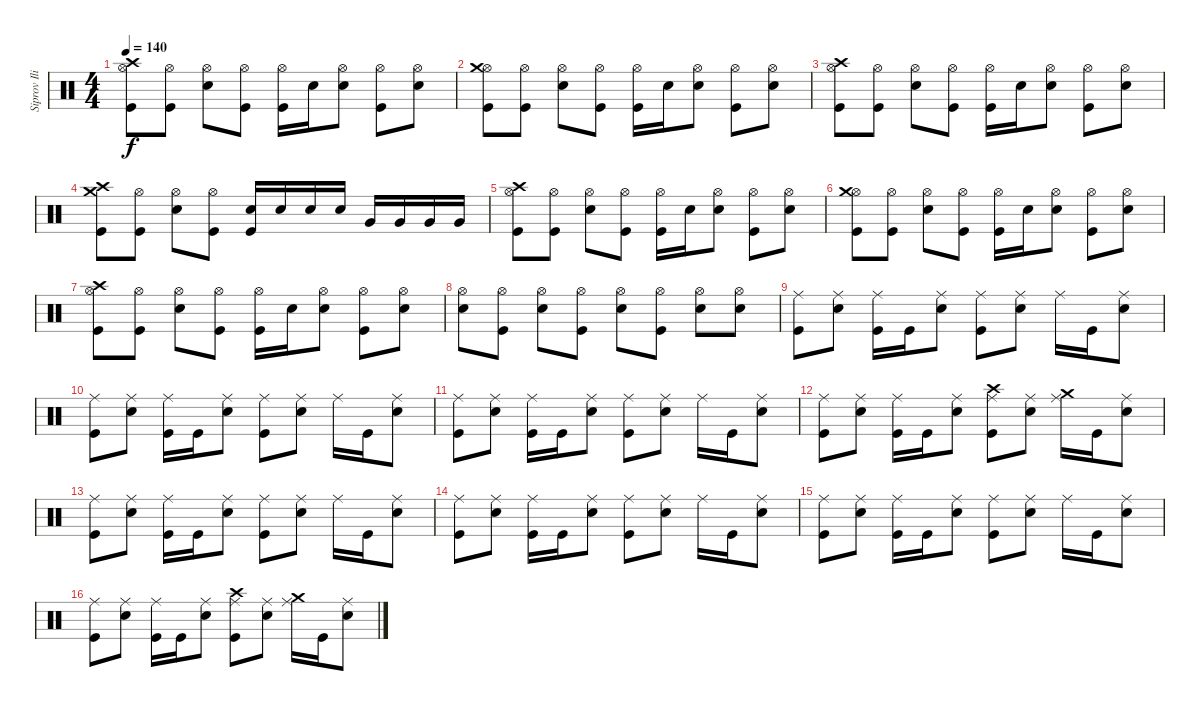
\track ("Siprov Iliya (DRUMS)" "Siprov Ili") {instrument percussion}
\staff {score}
\articulation defaults
\ts (4 4)
\tempo 140
\clef neutral
\ks c
("Hi-Hat (open)" "Crash high (hit)" "Kick (hit)").8{dy f} ("Hi-Hat (open)" "Kick (hit)").8 ("Hi-Hat (open)" "Electric Snare (hit)").8 ("Hi-Hat (open)" "Kick (hit)").8 ("Hi-Hat (open)" "Kick (hit)").16 "Electric Snare (hit)".16 ("Hi-Hat (open)" "Electric Snare (hit)").8 ("Hi-Hat (open)" "Kick (hit)").8 ("Hi-Hat (open)" "Electric Snare (hit)").8 |
("Hi-Hat (open)" "Crash medium (hit)" "Kick (hit)").8 ("Hi-Hat (open)" "Kick (hit)").8 ("Hi-Hat (open)" "Electric Snare (hit)").8 ("Hi-Hat (open)" "Kick (hit)").8 ("Hi-Hat (open)" "Kick (hit)").16 "Electric Snare (hit)".16 ("Hi-Hat (open)" "Electric Snare (hit)").8 ("Hi-Hat (open)" "Kick (hit)").8 ("Hi-Hat (open)" "Electric Snare (hit)").8 |
("Hi-Hat (open)" "Crash high (hit)" "Kick (hit)").8 ("Hi-Hat (open)" "Kick (hit)").8 ("Hi-Hat (open)" "Electric Snare (hit)").8 ("Hi-Hat (open)" "Kick (hit)").8 ("Hi-Hat (open)" "Kick (hit)").16 "Electric Snare (hit)".16 ("Hi-Hat (open)" "Electric Snare (hit)").8 ("Hi-Hat (open)" "Kick (hit)").8 ("Hi-Hat (open)" "Electric Snare (hit)").8 |
("Crash high (hit)" "Crash medium (hit)" "Kick (hit)").8 ("Hi-Hat (open)" "Kick (hit)").8 ("Hi-Hat (open)" "Electric Snare (hit)").8 ("Hi-Hat (open)" "Kick (hit)").8 ("Electric Snare (hit)" "Kick (hit)").16 "Electric Snare (hit)".16 "Electric Snare (hit)".16 "Electric Snare (hit)".16 "Very Low Tom (hit)".16 "Very Low Tom (hit)".16 "Very Low Tom (hit)".16 "Very Low Tom (hit)".16 |
("Hi-Hat (open)" "Crash high (hit)" "Kick (hit)").8 ("Hi-Hat (open)" "Kick (hit)").8 ("Hi-Hat (open)" "Electric Snare (hit)").8 ("Hi-Hat (open)" "Kick (hit)").8 ("Hi-Hat (open)" "Kick (hit)").16 "Electric Snare (hit)".16 ("Hi-Hat (open)" "Electric Snare (hit)").8 ("Hi-Hat (open)" "Kick (hit)").8 ("Hi-Hat (open)" "Electric Snare (hit)").8 |
("Hi-Hat (open)" "Crash medium (hit)" "Kick (hit)").8 ("Hi-Hat (open)" "Kick (hit)").8 ("Hi-Hat (open)" "Electric Snare (hit)").8 ("Hi-Hat (open)" "Kick (hit)").8 ("Hi-Hat (open)" "Kick (hit)").16 "Electric Snare (hit)".16 ("Hi-Hat (open)" "Electric Snare (hit)").8 ("Hi-Hat (open)" "Kick (hit)").8 ("Hi-Hat (open)" "Electric Snare (hit)").8 |
("Hi-Hat (open)" "Crash high (hit)" "Kick (hit)").8 ("Hi-Hat (open)" "Kick (hit)").8 ("Hi-Hat (open)" "Electric Snare (hit)").8 ("Hi-Hat (open)" "Kick (hit)").8 ("Hi-Hat (open)" "Kick (hit)").16 "Electric Snare (hit)".16 ("Hi-Hat (open)" "Electric Snare (hit)").8 ("Hi-Hat (open)" "Kick (hit)").8 ("Hi-Hat (open)" "Electric Snare (hit)").8 |
("Hi-Hat (open)" "Electric Snare (hit)").8 ("Hi-Hat (open)" "Kick (hit)").8 ("Hi-Hat (open)" "Electric Snare (hit)").8 ("Hi-Hat (open)" "Kick (hit)").8 ("Hi-Hat (open)" "Electric Snare (hit)").8 ("Hi-Hat (open)" "Kick (hit)").8 ("Hi-Hat (open)" "Electric Snare (hit)").8 ("Hi-Hat (open)" "Electric Snare (hit)").8 |
("Ride (middle)" "Kick (hit)").8 ("Ride (middle)" "Electric Snare (hit)").8 ("Ride (middle)" "Kick (hit)").16 "Kick (hit)".16 ("Ride (middle)" "Electric Snare (hit)").8 ("Ride (middle)" "Kick (hit)").8 ("Ride (middle)" "Electric Snare (hit)").8 "Ride (middle)".16 "Kick (hit)".16 ("Ride (middle)" "Electric Snare (hit)").8 |
("Ride (middle)" "Kick (hit)").8 ("Ride (middle)" "Electric Snare (hit)").8 ("Ride (middle)" "Kick (hit)").16 "Kick (hit)".16 ("Ride (middle)" "Electric Snare (hit)").8 ("Ride (middle)" "Kick (hit)").8 ("Ride (middle)" "Electric Snare (hit)").8 "Ride (middle)".16 "Kick (hit)".16 ("Ride (middle)" "Electric Snare (hit)").8 |
("Ride (middle)" "Kick (hit)").8 ("Ride (middle)" "Electric Snare (hit)").8 ("Ride (middle)" "Kick (hit)").16 "Kick (hit)".16 ("Ride (middle)" "Electric Snare (hit)").8 ("Ride (middle)" "Kick (hit)").8 ("Ride (middle)" "Electric Snare (hit)").8 "Ride (middle)".16 "Kick (hit)".16 ("Ride (middle)" "Electric Snare (hit)").8 |
("Ride (middle)" "Kick (hit)").8 ("Ride (middle)" "Electric Snare (hit)").8 ("Ride (middle)" "Kick (hit)").16 "Kick (hit)".16 ("Ride (middle)" "Electric Snare (hit)").8 ("Ride (middle)" "Crash high (hit)" "Kick (hit)").8 ("Ride (middle)" "Electric Snare (hit)").8 ("Ride (middle)" "Crash medium (hit)").16 "Kick (hit)".16 ("Ride (middle)" "Electric Snare (hit)").8 |
("Ride (middle)" "Kick (hit)").8 ("Ride (middle)" "Electric Snare (hit)").8 ("Ride (middle)" "Kick (hit)").16 "Kick (hit)".16 ("Ride (middle)" "Electric Snare (hit)").8 ("Ride (middle)" "Kick (hit)").8 ("Ride (middle)" "Electric Snare (hit)").8 "Ride (middle)".16 "Kick (hit)".16 ("Ride (middle)" "Electric Snare (hit)").8 |
("Ride (middle)" "Kick (hit)").8 ("Ride (middle)" "Electric Snare (hit)").8 ("Ride (middle)" "Kick (hit)").16 "Kick (hit)".16 ("Ride (middle)" "Electric Snare (hit)").8 ("Ride (middle)" "Kick (hit)").8 ("Ride (middle)" "Electric Snare (hit)").8 "Ride (middle)".16 "Kick (hit)".16 ("Ride (middle)" "Electric Snare (hit)").8 |
("Ride (middle)" "Kick (hit)").8 ("Ride (middle)" "Electric Snare (hit)").8 ("Ride (middle)" "Kick (hit)").16 "Kick (hit)".16 ("Ride (middle)" "Electric Snare (hit)").8 ("Ride (middle)" "Kick (hit)").8 ("Ride (middle)" "Electric Snare (hit)").8 "Ride (middle)".16 "Kick (hit)".16 ("Ride (middle)" "Electric Snare (hit)").8 |
("Ride (middle)" "Kick (hit)").8 ("Ride (middle)" "Electric Snare (hit)").8 ("Ride (middle)" "Kick (hit)").16 "Kick (hit)".16 ("Ride (middle)" "Electric Snare (hit)").8 ("Ride (middle)" "Crash high (hit)" "Kick (hit)").8 ("Ride (middle)" "Electric Snare (hit)").8 ("Ride (middle)" "Crash medium (hit)").16 "Kick (hit)".16 ("Ride (middle)" "Electric Snare (hit)").8
